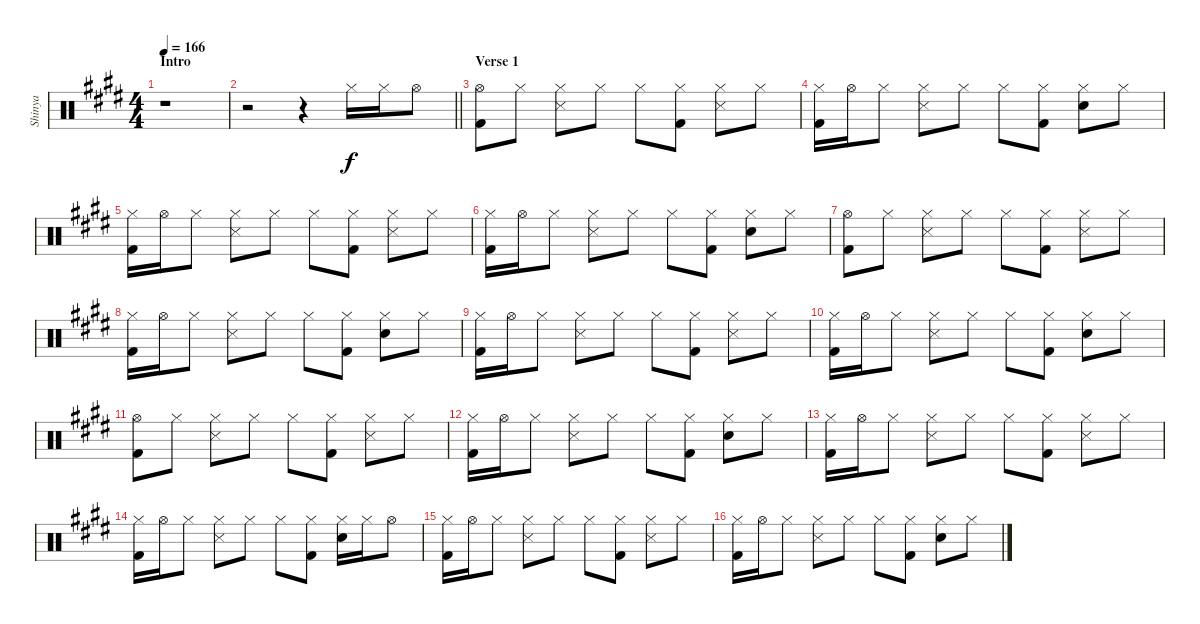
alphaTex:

\track ("Shinya" "Shinya") {instrument percussion}
\staff {score}
\articulation defaults
\ts (4 4)
\section ("" "Intro")
\tempo 166
\tempo 83
\tempo 166
\clef neutral
\ks e
r.1{dy f} |
\barLineRight lightlight
r.2 r.4 "Hi-Hat (closed)".16 "Hi-Hat (closed)".16 "Hi-Hat (open)".8 |
\section ("" "Verse 1")
("Hi-Hat (open)" "Kick (hit) 2").8 "Hi-Hat (closed)".8 ("Hi-Hat (closed)" "Snare (side stick) 3").8 "Hi-Hat (closed)".8 "Hi-Hat (closed)".8 ("Hi-Hat (closed)" "Kick (hit) 2").8 ("Hi-Hat (closed)" "Snare (side stick) 3").8 "Hi-Hat (closed)".8 |
("Hi-Hat (closed)" "Kick (hit) 2").16 "Hi-Hat (open)".16 "Hi-Hat (closed)".8 ("Hi-Hat (closed)" "Snare (side stick) 3").8 "Hi-Hat (closed)".8 "Hi-Hat (closed)".8 ("Hi-Hat (closed)" "Kick (hit) 2").8 ("Hi-Hat (closed)" "Snare (hit) 2").8 "Hi-Hat (closed)".8 |
("Hi-Hat (closed)" "Kick (hit) 2").16 "Hi-Hat (open)".16 "Hi-Hat (closed)".8 ("Hi-Hat (closed)" "Snare (side stick) 3").8 "Hi-Hat (closed)".8 "Hi-Hat (closed)".8 ("Hi-Hat (closed)" "Kick (hit) 2").8 ("Hi-Hat (closed)" "Snare (side stick) 3").8 "Hi-Hat (closed)".8 |
("Hi-Hat (closed)" "Kick (hit) 2").16 "Hi-Hat (open)".16 "Hi-Hat (closed)".8 ("Hi-Hat (closed)" "Snare (side stick) 3").8 "Hi-Hat (closed)".8 "Hi-Hat (closed)".8 ("Hi-Hat (closed)" "Kick (hit) 2").8 ("Hi-Hat (closed)" "Snare (hit) 2").8 "Hi-Hat (closed)".8 |
("Hi-Hat (open)" "Kick (hit) 2").8 "Hi-Hat (closed)".8 ("Hi-Hat (closed)" "Snare (side stick) 3").8 "Hi-Hat (closed)".8 "Hi-Hat (closed)".8 ("Hi-Hat (closed)" "Kick (hit) 2").8 ("Hi-Hat (closed)" "Snare (side stick) 3").8 "Hi-Hat (closed)".8 |
("Hi-Hat (closed)" "Kick (hit) 2").16 "Hi-Hat (open)".16 "Hi-Hat (closed)".8 ("Hi-Hat (closed)" "Snare (side stick) 3").8 "Hi-Hat (closed)".8 "Hi-Hat (closed)".8 ("Hi-Hat (closed)" "Kick (hit) 2").8 ("Hi-Hat (closed)" "Snare (hit) 2").8 "Hi-Hat (closed)".8 |
("Hi-Hat (closed)" "Kick (hit) 2").16 "Hi-Hat (open)".16 "Hi-Hat (closed)".8 ("Hi-Hat (closed)" "Snare (side stick) 3").8 "Hi-Hat (closed)".8 "Hi-Hat (closed)".8 ("Hi-Hat (closed)" "Kick (hit) 2").8 ("Hi-Hat (closed)" "Snare (side stick) 3").8 "Hi-Hat (closed)".8 |
("Hi-Hat (closed)" "Kick (hit) 2").16 "Hi-Hat (open)".16 "Hi-Hat (closed)".8 ("Hi-Hat (closed)" "Snare (side stick) 3").8 "Hi-Hat (closed)".8 "Hi-Hat (closed)".8 ("Hi-Hat (closed)" "Kick (hit) 2").8 ("Hi-Hat (closed)" "Snare (hit) 2").8 "Hi-Hat (closed)".8 |
("Hi-Hat (open)" "Kick (hit) 2").8 "Hi-Hat (closed)".8 ("Hi-Hat (closed)" "Snare (side stick) 3").8 "Hi-Hat (closed)".8 "Hi-Hat (closed)".8 ("Hi-Hat (closed)" "Kick (hit) 2").8 ("Hi-Hat (closed)" "Snare (side stick) 3").8 "Hi-Hat (closed)".8 |
("Hi-Hat (closed)" "Kick (hit) 2").16 "Hi-Hat (open)".16 "Hi-Hat (closed)".8 ("Hi-Hat (closed)" "Snare (side stick) 3").8 "Hi-Hat (closed)".8 "Hi-Hat (closed)".8 ("Hi-Hat (closed)" "Kick (hit) 2").8 ("Hi-Hat (closed)" "Snare (hit) 2").8 "Hi-Hat (closed)".8 |
("Hi-Hat (closed)" "Kick (hit) 2").16 "Hi-Hat (open)".16 "Hi-Hat (closed)".8 ("Hi-Hat (closed)" "Snare (side stick) 3").8 "Hi-Hat (closed)".8 "Hi-Hat (closed)".8 ("Hi-Hat (closed)" "Kick (hit) 2").8 ("Hi-Hat (closed)" "Snare (side stick) 3").8 "Hi-Hat (closed)".8 |
("Hi-Hat (closed)" "Kick (hit) 2").16 "Hi-Hat (open)".16 "Hi-Hat (closed)".8 ("Hi-Hat (closed)" "Snare (side stick) 3").8 "Hi-Hat (closed)".8 "Hi-Hat (closed)".8 ("Hi-Hat (closed)" "Kick (hit) 2").8 ("Hi-Hat (closed)" "Snare (hit) 2").16 "Hi-Hat (closed)".16 "Hi-Hat (open)".8 |
("Hi-Hat (closed)" "Kick (hit) 2").16 "Hi-Hat (open)".16 "Hi-Hat (closed)".8 ("Hi-Hat (closed)" "Snare (side stick) 3").8 "Hi-Hat (closed)".8 "Hi-Hat (closed)".8 ("Hi-Hat (closed)" "Kick (hit) 2").8 ("Hi-Hat (closed)" "Snare (side stick) 3").8 "Hi-Hat (closed)".8 |
("Hi-Hat (closed)" "Kick (hit) 2").16 "Hi-Hat (open)".16 "Hi-Hat (closed)".8 ("Hi-Hat (closed)" "Snare (side stick) 3").8 "Hi-Hat (closed)".8 "Hi-Hat (closed)".8 ("Hi-Hat (closed)" "Kick (hit) 2").8 ("Hi-Hat (closed)" "Snare (hit) 2").8 "Hi-Hat (closed)".8
